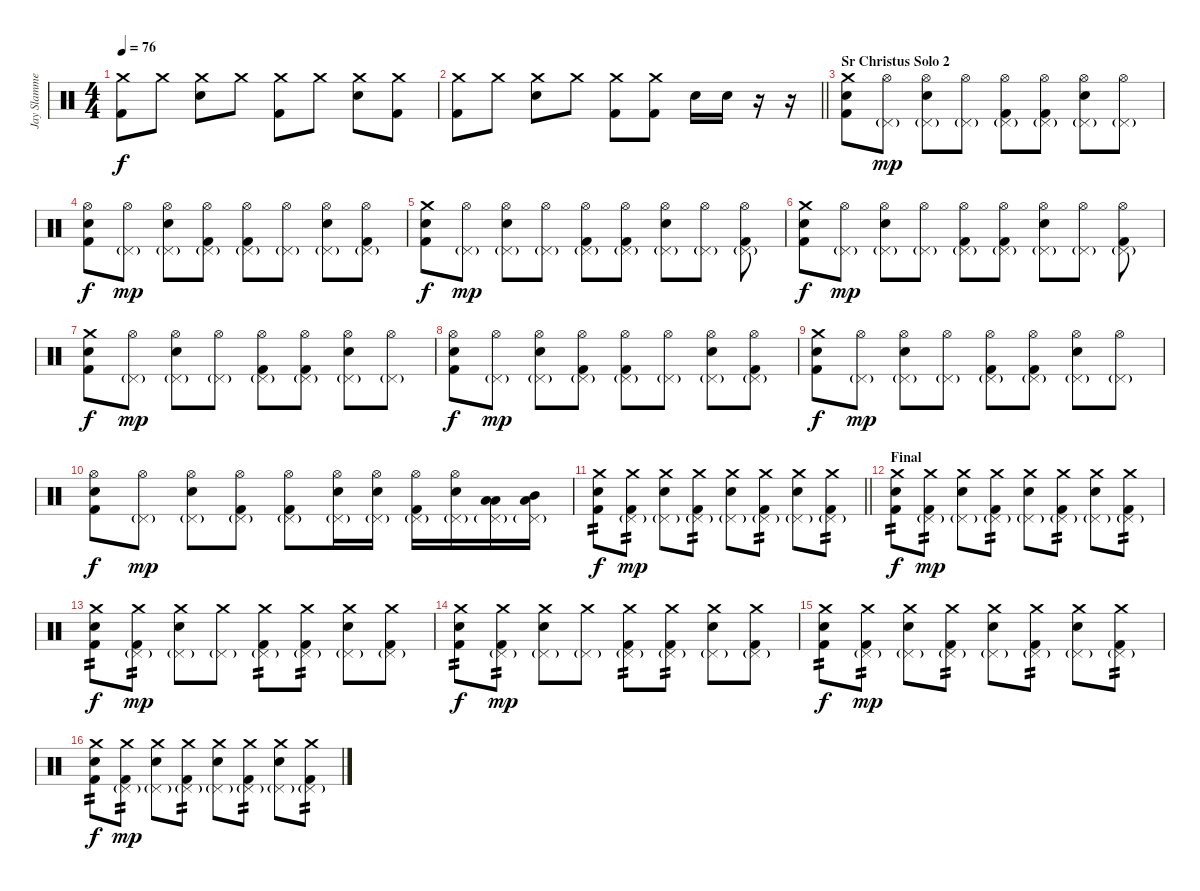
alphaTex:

\track ("Jay Slammer" "Jay Slamme") {instrument percussion}
\staff {score}
\articulation defaults
\ts (4 4)
\tempo 76
\clef neutral
\ks c
("Crash medium (hit)" "Kick (hit) 2").8{dy f} "Crash medium (hit)".8 ("Crash medium (hit)" "Electric Snare (hit)").8 "Crash medium (hit)".8 ("Crash medium (hit)" "Kick (hit) 2").8 "Crash medium (hit)".8 ("Crash medium (hit)" "Electric Snare (hit)").8 ("Crash medium (hit)" "Kick (hit) 2").8 |
\barLineRight lightlight
("Crash medium (hit)" "Kick (hit) 2").8 "Crash medium (hit)".8 ("Crash medium (hit)" "Electric Snare (hit)").8 "Crash medium (hit)".8 ("Crash medium (hit)" "Kick (hit) 2").8 ("Crash medium (hit)" "Kick (hit) 2").8 "Electric Snare (hit)".16 "Electric Snare (hit)".16 r.16 r.16 |
\section ("" "Sr Christus Solo 2")
("Snare (hit)" "Crash medium (hit)" "Kick (hit) 2").8 ("Pedal Hi-Hat (hit)"{g} "Hi-Hat (open)").8{dy mp} ("Pedal Hi-Hat (hit)"{g} "Hi-Hat (open)" "Electric Snare (hit)").8 ("Pedal Hi-Hat (hit)"{g} "Hi-Hat (open)").8 ("Pedal Hi-Hat (hit)"{g} "Hi-Hat (open)" "Kick (hit) 2").8 ("Pedal Hi-Hat (hit)"{g} "Hi-Hat (open)" "Kick (hit) 2").8 ("Pedal Hi-Hat (hit)"{g} "Hi-Hat (open)" "Electric Snare (hit)").8 ("Pedal Hi-Hat (hit)"{g} "Hi-Hat (open)").8 |
("Snare (hit)" "Hi-Hat (open)" "Kick (hit) 2").8{dy f} ("Pedal Hi-Hat (hit)"{g} "Hi-Hat (open)").8{dy mp} ("Pedal Hi-Hat (hit)"{g} "Hi-Hat (open)" "Electric Snare (hit)").8 ("Pedal Hi-Hat (hit)"{g} "Hi-Hat (open)" "Kick (hit) 2").8 ("Pedal Hi-Hat (hit)"{g} "Hi-Hat (open)" "Kick (hit) 2").8 ("Pedal Hi-Hat (hit)"{g} "Hi-Hat (open)").8 ("Pedal Hi-Hat (hit)"{g} "Hi-Hat (open)" "Electric Snare (hit)").8 ("Pedal Hi-Hat (hit)"{g} "Hi-Hat (open)" "Kick (hit) 2").8 |
("Snare (hit)" "Crash medium (hit)" "Kick (hit) 2").8{dy f} ("Pedal Hi-Hat (hit)"{g} "Hi-Hat (open)").8{dy mp} ("Pedal Hi-Hat (hit)"{g} "Hi-Hat (open)" "Electric Snare (hit)").8 ("Pedal Hi-Hat (hit)"{g} "Hi-Hat (open)").8 ("Pedal Hi-Hat (hit)"{g} "Hi-Hat (open)" "Kick (hit) 2").8 ("Pedal Hi-Hat (hit)"{g} "Hi-Hat (open)" "Kick (hit) 2").8 ("Pedal Hi-Hat (hit)"{g} "Hi-Hat (open)" "Electric Snare (hit)").8 ("Pedal Hi-Hat (hit)"{g} "Hi-Hat (open)").8 ("Pedal Hi-Hat (hit)"{g} "Hi-Hat (open)" "Kick (hit) 2").8 |
("Snare (hit)" "Crash medium (hit)" "Kick (hit) 2").8{dy f} ("Pedal Hi-Hat (hit)"{g} "Hi-Hat (open)").8{dy mp} ("Pedal Hi-Hat (hit)"{g} "Hi-Hat (open)" "Electric Snare (hit)").8 ("Pedal Hi-Hat (hit)"{g} "Hi-Hat (open)").8 ("Pedal Hi-Hat (hit)"{g} "Hi-Hat (open)" "Kick (hit) 2").8 ("Pedal Hi-Hat (hit)"{g} "Hi-Hat (open)" "Kick (hit) 2").8 ("Pedal Hi-Hat (hit)"{g} "Hi-Hat (open)" "Electric Snare (hit)").8 ("Pedal Hi-Hat (hit)"{g} "Hi-Hat (open)").8 ("Pedal Hi-Hat (hit)"{g} "Hi-Hat (open)" "Kick (hit) 2").8 |
("Snare (hit)" "Crash medium (hit)" "Kick (hit) 2").8{dy f} ("Pedal Hi-Hat (hit)"{g} "Hi-Hat (open)").8{dy mp} ("Pedal Hi-Hat (hit)"{g} "Hi-Hat (open)" "Electric Snare (hit)").8 ("Pedal Hi-Hat (hit)"{g} "Hi-Hat (open)").8 ("Pedal Hi-Hat (hit)"{g} "Hi-Hat (open)" "Kick (hit) 2").8 ("Pedal Hi-Hat (hit)"{g} "Hi-Hat (open)" "Kick (hit) 2").8 ("Pedal Hi-Hat (hit)"{g} "Hi-Hat (open)" "Electric Snare (hit)").8 ("Pedal Hi-Hat (hit)"{g} "Hi-Hat (open)").8 |
("Snare (hit)" "Hi-Hat (open)" "Kick (hit) 2").8{dy f} ("Pedal Hi-Hat (hit)"{g} "Hi-Hat (open)").8{dy mp} ("Pedal Hi-Hat (hit)"{g} "Hi-Hat (open)" "Electric Snare (hit)").8 ("Pedal Hi-Hat (hit)"{g} "Hi-Hat (open)" "Kick (hit) 2").8 ("Pedal Hi-Hat (hit)"{g} "Hi-Hat (open)" "Kick (hit) 2").8 ("Pedal Hi-Hat (hit)"{g} "Hi-Hat (open)").8 ("Pedal Hi-Hat (hit)"{g} "Hi-Hat (open)" "Electric Snare (hit)").8 ("Pedal Hi-Hat (hit)"{g} "Hi-Hat (open)" "Kick (hit) 2").8 |
("Snare (hit)" "Crash medium (hit)" "Kick (hit) 2").8{dy f} ("Pedal Hi-Hat (hit)"{g} "Hi-Hat (open)").8{dy mp} ("Pedal Hi-Hat (hit)"{g} "Hi-Hat (open)" "Electric Snare (hit)").8 ("Pedal Hi-Hat (hit)"{g} "Hi-Hat (open)").8 ("Pedal Hi-Hat (hit)"{g} "Hi-Hat (open)" "Kick (hit) 2").8 ("Pedal Hi-Hat (hit)"{g} "Hi-Hat (open)" "Kick (hit) 2").8 ("Pedal Hi-Hat (hit)"{g} "Hi-Hat (open)" "Electric Snare (hit)").8 ("Pedal Hi-Hat (hit)"{g} "Hi-Hat (open)").8 |
("Snare (hit)" "Hi-Hat (open)" "Kick (hit) 2").8{dy f} ("Pedal Hi-Hat (hit)"{g} "Hi-Hat (open)").8{dy mp} ("Pedal Hi-Hat (hit)"{g} "Hi-Hat (open)" "Electric Snare (hit)").8 ("Pedal Hi-Hat (hit)"{g} "Hi-Hat (open)" "Kick (hit) 2").8 ("Pedal Hi-Hat (hit)"{g} "Hi-Hat (open)" "Kick (hit) 2").8 ("Pedal Hi-Hat (hit)"{g} "Hi-Hat (open)" "Electric Snare (hit)").16 ("Pedal Hi-Hat (hit)"{g} "Hi-Hat (open)" "Electric Snare (hit)").16 ("Pedal Hi-Hat (hit)"{g} "Hi-Hat (open)" "Kick (hit) 2").16 ("Pedal Hi-Hat (hit)"{g} "Hi-Hat (open)" "Electric Snare (hit)").16 ("Pedal Hi-Hat (hit)"{g} "Low Tom (hit)" "Low Tom (hit)").16 ("Pedal Hi-Hat (hit)"{g} "Mid Tom (hit)" "Low Tom (hit)").16 |
\barLineRight lightlight
("Snare (hit)" "Crash medium (hit)" "Kick (hit) 2").8{tp 2 dy f} ("Pedal Hi-Hat (hit)"{g} "Crash medium (hit)" "Kick (hit) 2").8{tp 2 dy mp} ("Pedal Hi-Hat (hit)"{g} "Crash medium (hit)" "Electric Snare (hit)").8 ("Pedal Hi-Hat (hit)"{g} "Crash medium (hit)" "Kick (hit) 2").8{tp 2} ("Pedal Hi-Hat (hit)"{g} "Crash medium (hit)" "Electric Snare (hit)").8 ("Pedal Hi-Hat (hit)"{g} "Crash medium (hit)" "Kick (hit) 2").8{tp 2} ("Pedal Hi-Hat (hit)"{g} "Crash medium (hit)" "Electric Snare (hit)").8 ("Pedal Hi-Hat (hit)"{g} "Crash medium (hit)" "Kick (hit) 2").8{tp 2} |
\section ("" "Final")
("Snare (hit)" "Crash medium (hit)" "Kick (hit) 2").8{tp 2 dy f} ("Pedal Hi-Hat (hit)"{g} "Crash medium (hit)" "Kick (hit) 2").8{tp 2 dy mp} ("Pedal Hi-Hat (hit)"{g} "Crash medium (hit)" "Electric Snare (hit)").8 ("Pedal Hi-Hat (hit)"{g} "Crash medium (hit)" "Kick (hit) 2").8{tp 2} ("Pedal Hi-Hat (hit)"{g} "Crash medium (hit)" "Electric Snare (hit)").8 ("Pedal Hi-Hat (hit)"{g} "Crash medium (hit)" "Kick (hit) 2").8{tp 2} ("Pedal Hi-Hat (hit)"{g} "Crash medium (hit)" "Electric Snare (hit)").8 ("Pedal Hi-Hat (hit)"{g} "Crash medium (hit)" "Kick (hit) 2").8{tp 2} |
("Snare (hit)" "Crash medium (hit)" "Kick (hit) 2").8{tp 2 dy f} ("Pedal Hi-Hat (hit)"{g} "Crash medium (hit)" "Kick (hit) 2").8{tp 2 dy mp} ("Pedal Hi-Hat (hit)"{g} "Crash medium (hit)" "Electric Snare (hit)").8 ("Pedal Hi-Hat (hit)"{g} "Crash medium (hit)").8 ("Pedal Hi-Hat (hit)"{g} "Crash medium (hit)" "Kick (hit) 2").8{tp 2} ("Pedal Hi-Hat (hit)"{g} "Crash medium (hit)" "Kick (hit) 2").8{tp 2} ("Pedal Hi-Hat (hit)"{g} "Crash medium (hit)" "Electric Snare (hit)").8 ("Pedal Hi-Hat (hit)"{g} "Crash medium (hit)" "Kick (hit) 2").8 |
("Snare (hit)" "Crash medium (hit)" "Kick (hit) 2").8{tp 2 dy f} ("Pedal Hi-Hat (hit)"{g} "Crash medium (hit)" "Kick (hit) 2").8{tp 2 dy mp} ("Pedal Hi-Hat (hit)"{g} "Crash medium (hit)" "Electric Snare (hit)").8 ("Pedal Hi-Hat (hit)"{g} "Crash medium (hit)").8 ("Pedal Hi-Hat (hit)"{g} "Crash medium (hit)" "Kick (hit) 2").8{tp 2} ("Pedal Hi-Hat (hit)"{g} "Crash medium (hit)" "Kick (hit) 2").8{tp 2} ("Pedal Hi-Hat (hit)"{g} "Crash medium (hit)" "Electric Snare (hit)").8 ("Pedal Hi-Hat (hit)"{g} "Crash medium (hit)" "Kick (hit) 2").8 |
("Snare (hit)" "Crash medium (hit)" "Kick (hit) 2").8{tp 2 dy f} ("Pedal Hi-Hat (hit)"{g} "Crash medium (hit)" "Kick (hit) 2").8{tp 2 dy mp} ("Pedal Hi-Hat (hit)"{g} "Crash medium (hit)" "Electric Snare (hit)").8 ("Pedal Hi-Hat (hit)"{g} "Crash medium (hit)" "Kick (hit) 2").8{tp 2} ("Pedal Hi-Hat (hit)"{g} "Crash medium (hit)" "Electric Snare (hit)").8 ("Pedal Hi-Hat (hit)"{g} "Crash medium (hit)" "Kick (hit) 2").8{tp 2} ("Pedal Hi-Hat (hit)"{g} "Crash medium (hit)" "Electric Snare (hit)").8 ("Pedal Hi-Hat (hit)"{g} "Crash medium (hit)" "Kick (hit) 2").8{tp 2} |
("Snare (hit)" "Crash medium (hit)" "Kick (hit) 2").8{tp 2 dy f} ("Pedal Hi-Hat (hit)"{g} "Crash medium (hit)" "Kick (hit) 2").8{tp 2 dy mp} ("Pedal Hi-Hat (hit)"{g} "Crash medium (hit)" "Electric Snare (hit)").8 ("Pedal Hi-Hat (hit)"{g} "Crash medium (hit)" "Kick (hit) 2").8{tp 2} ("Pedal Hi-Hat (hit)"{g} "Crash medium (hit)" "Electric Snare (hit)").8 ("Pedal Hi-Hat (hit)"{g} "Crash medium (hit)" "Kick (hit) 2").8{tp 2} ("Pedal Hi-Hat (hit)"{g} "Crash medium (hit)" "Electric Snare (hit)").8 ("Pedal Hi-Hat (hit)"{g} "Crash medium (hit)" "Kick (hit) 2").8{tp 2}
